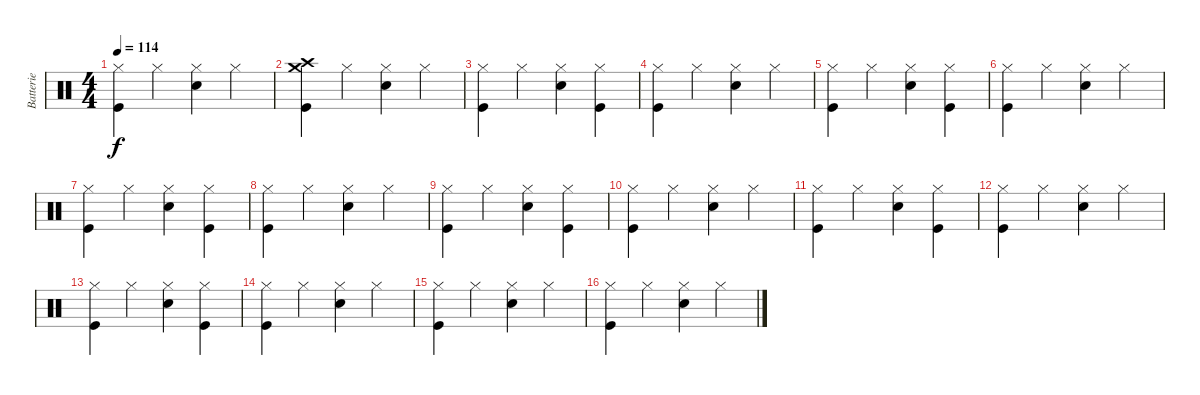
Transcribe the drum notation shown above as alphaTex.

\track ("Batterie" "Batterie") {instrument percussion}
\staff {score}
\articulation defaults
\ts (4 4)
\tempo 114
\clef neutral
\ks c
("Hi-Hat (closed)" "Kick (hit)").4{dy f} "Hi-Hat (closed)".4 ("Hi-Hat (closed)" "Snare (hit) 2").4 "Hi-Hat (closed)".4 |
("Crash medium (hit)" "Crash high (hit)" "Kick (hit)").4 "Hi-Hat (closed)".4 ("Hi-Hat (closed)" "Snare (hit) 2").4 "Hi-Hat (closed)".4 |
("Hi-Hat (closed)" "Kick (hit)").4 "Hi-Hat (closed)".4 ("Hi-Hat (closed)" "Snare (hit) 2").4 ("Hi-Hat (closed)" "Kick (hit)").4 |
("Hi-Hat (closed)" "Kick (hit)").4 "Hi-Hat (closed)".4 ("Hi-Hat (closed)" "Snare (hit) 2").4 "Hi-Hat (closed)".4 |
("Hi-Hat (closed)" "Kick (hit)").4 "Hi-Hat (closed)".4 ("Hi-Hat (closed)" "Snare (hit) 2").4 ("Hi-Hat (closed)" "Kick (hit)").4 |
("Hi-Hat (closed)" "Kick (hit)").4 "Hi-Hat (closed)".4 ("Hi-Hat (closed)" "Snare (hit) 2").4 "Hi-Hat (closed)".4 |
("Hi-Hat (closed)" "Kick (hit)").4 "Hi-Hat (closed)".4 ("Hi-Hat (closed)" "Snare (hit) 2").4 ("Hi-Hat (closed)" "Kick (hit)").4 |
("Hi-Hat (closed)" "Kick (hit)").4 "Hi-Hat (closed)".4 ("Hi-Hat (closed)" "Snare (hit) 2").4 "Hi-Hat (closed)".4 |
("Hi-Hat (closed)" "Kick (hit)").4 "Hi-Hat (closed)".4 ("Hi-Hat (closed)" "Snare (hit) 2").4 ("Hi-Hat (closed)" "Kick (hit)").4 |
("Hi-Hat (closed)" "Kick (hit)").4 "Hi-Hat (closed)".4 ("Hi-Hat (closed)" "Snare (hit) 2").4 "Hi-Hat (closed)".4 |
("Hi-Hat (closed)" "Kick (hit)").4 "Hi-Hat (closed)".4 ("Hi-Hat (closed)" "Snare (hit) 2").4 ("Hi-Hat (closed)" "Kick (hit)").4 |
("Hi-Hat (closed)" "Kick (hit)").4 "Hi-Hat (closed)".4 ("Hi-Hat (closed)" "Snare (hit) 2").4 "Hi-Hat (closed)".4 |
("Hi-Hat (closed)" "Kick (hit)").4 "Hi-Hat (closed)".4 ("Hi-Hat (closed)" "Snare (hit) 2").4 ("Hi-Hat (closed)" "Kick (hit)").4 |
("Hi-Hat (closed)" "Kick (hit)").4 "Hi-Hat (closed)".4 ("Hi-Hat (closed)" "Snare (hit) 2").4 "Hi-Hat (closed)".4 |
("Hi-Hat (closed)" "Kick (hit)").4 "Hi-Hat (closed)".4 ("Hi-Hat (closed)" "Snare (hit) 2").4 "Hi-Hat (closed)".4 |
("Hi-Hat (closed)" "Kick (hit)").4 "Hi-Hat (closed)".4 ("Hi-Hat (closed)" "Snare (hit) 2").4 "Hi-Hat (closed)".4
